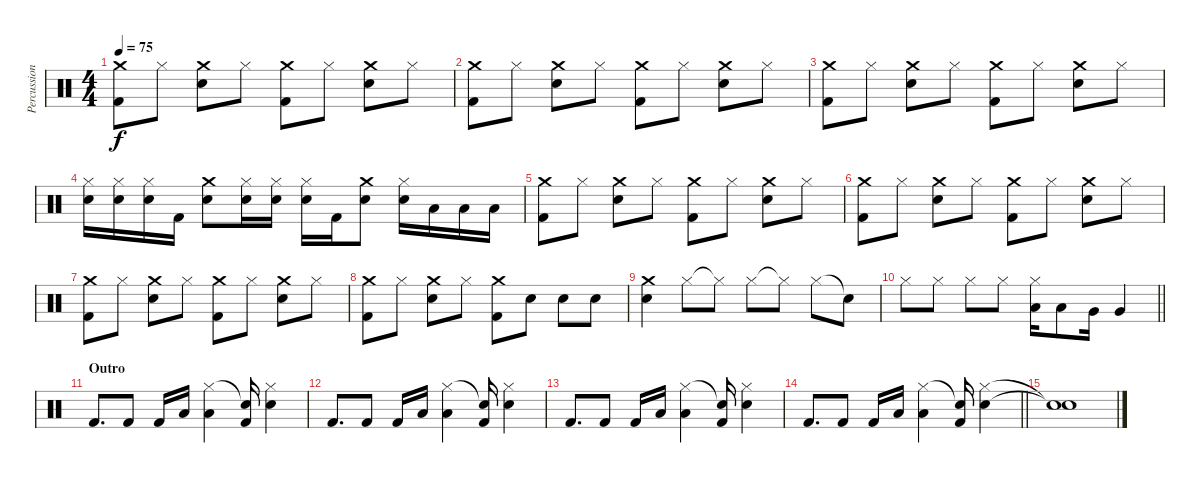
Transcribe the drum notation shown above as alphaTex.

\track ("Percussion (Lemuel)" "Percussion") {instrument percussion}
\staff {score}
\articulation defaults
\ts (4 4)
\tempo 75
\clef neutral
\ks c
("Crash medium (hit)" "Kick (hit) 2").8{dy f} "Hi-Hat (closed)".8 ("Crash medium (hit)" "Electric Snare (hit)").8 "Hi-Hat (closed)".8 ("Crash medium (hit)" "Kick (hit) 2").8 "Hi-Hat (closed)".8 ("Crash medium (hit)" "Electric Snare (hit)").8 "Hi-Hat (closed)".8 |
("Crash medium (hit)" "Kick (hit) 2").8 "Hi-Hat (closed)".8 ("Crash medium (hit)" "Electric Snare (hit)").8 "Hi-Hat (closed)".8 ("Crash medium (hit)" "Kick (hit) 2").8 "Hi-Hat (closed)".8 ("Crash medium (hit)" "Electric Snare (hit)").8 "Hi-Hat (closed)".8 |
("Crash medium (hit)" "Kick (hit) 2").8 "Hi-Hat (closed)".8 ("Crash medium (hit)" "Electric Snare (hit)").8 "Hi-Hat (closed)".8 ("Crash medium (hit)" "Kick (hit) 2").8 "Hi-Hat (closed)".8 ("Crash medium (hit)" "Electric Snare (hit)").8 "Hi-Hat (closed)".8 |
("Electric Snare (hit)" "Hi-Hat (closed)").16 ("Electric Snare (hit)" "Hi-Hat (closed)").16 ("Electric Snare (hit)" "Hi-Hat (closed)").16 "Kick (hit) 2".16 ("Electric Snare (hit)" "Crash medium (hit)").8 ("Electric Snare (hit)" "Hi-Hat (closed)").16 ("Electric Snare (hit)" "Hi-Hat (closed)").16 ("Electric Snare (hit)" "Hi-Hat (closed)").16 "Kick (hit) 2".16 ("Electric Snare (hit)" "Crash medium (hit)").8 ("Electric Snare (hit)" "Hi-Hat (closed)").16 "Low Tom (hit)".16 "Low Tom (hit)".16 "Low Tom (hit)".16 |
("Crash medium (hit)" "Kick (hit) 2").8 "Hi-Hat (closed)".8 ("Crash medium (hit)" "Electric Snare (hit)").8 "Hi-Hat (closed)".8 ("Crash medium (hit)" "Kick (hit) 2").8 "Hi-Hat (closed)".8 ("Crash medium (hit)" "Electric Snare (hit)").8 "Hi-Hat (closed)".8 |
("Crash medium (hit)" "Kick (hit) 2").8 "Hi-Hat (closed)".8 ("Crash medium (hit)" "Electric Snare (hit)").8 "Hi-Hat (closed)".8 ("Crash medium (hit)" "Kick (hit) 2").8 "Hi-Hat (closed)".8 ("Crash medium (hit)" "Electric Snare (hit)").8 "Hi-Hat (closed)".8 |
("Crash medium (hit)" "Kick (hit) 2").8 "Hi-Hat (closed)".8 ("Crash medium (hit)" "Electric Snare (hit)").8 "Hi-Hat (closed)".8 ("Crash medium (hit)" "Kick (hit) 2").8 "Hi-Hat (closed)".8 ("Crash medium (hit)" "Electric Snare (hit)").8 "Hi-Hat (closed)".8 |
("Crash medium (hit)" "Kick (hit) 2").8 "Hi-Hat (closed)".8 ("Crash medium (hit)" "Electric Snare (hit)").8 "Hi-Hat (closed)".8 ("Crash medium (hit)" "Kick (hit) 2").8 "Electric Snare (hit)".8 "Electric Snare (hit)".8 "Electric Snare (hit)".8 |
("Crash medium (hit)" "Electric Snare (hit)").4 "Hi-Hat (closed)".8 "Hi-Hat (closed)"{t}.8 "Hi-Hat (closed)".8 "Hi-Hat (closed)"{t}.8 "Hi-Hat (closed)".8 "Snare (hit)"{t}.8 |
\barLineRight lightlight "Hi-Hat (closed)".8 "Hi-Hat (closed)".8 "Hi-Hat (closed)".8 "Hi-Hat (closed)".8
("Hi-Hat (closed)" "Low Tom (hit)").16 "Low Tom (hit)".8 "Very Low Tom (hit)".16 "Very Low Tom (hit)".4 |
\section ("" "Outro")
"Kick (hit) 2".8{d} "Kick (hit) 2".8 "Kick (hit) 2".16 "Low Tom (hit)".16 ("Low Tom (hit)" "Hi-Hat (closed)").4 ("Kick (hit) 2" "Snare (hit)"{t}).16 ("Electric Snare (hit)" "Hi-Hat (closed)").4 |
"Kick (hit) 2".8{d} "Kick (hit) 2".8 "Kick (hit) 2".16 "Low Tom (hit)".16 ("Low Tom (hit)" "Hi-Hat (closed)").4 ("Kick (hit) 2" "Snare (hit)"{t}).16 ("Electric Snare (hit)" "Hi-Hat (closed)").4 |
"Kick (hit) 2".8{d} "Kick (hit) 2".8 "Kick (hit) 2".16 "Low Tom (hit)".16 ("Low Tom (hit)" "Hi-Hat (closed)").4 ("Kick (hit) 2" "Snare (hit)"{t}).16 ("Electric Snare (hit)" "Hi-Hat (closed)").4 |
\barLineRight lightlight "Kick (hit) 2".8{d} "Kick (hit) 2".8 "Kick (hit) 2".16 "Low Tom (hit)".16
("Low Tom (hit)" "Hi-Hat (closed)").4 ("Kick (hit) 2" "Snare (hit)"{t}).16 ("Electric Snare (hit)" "Hi-Hat (closed)").4 |
("Snare (hit)"{t} "Snare (hit)"{t}).1
